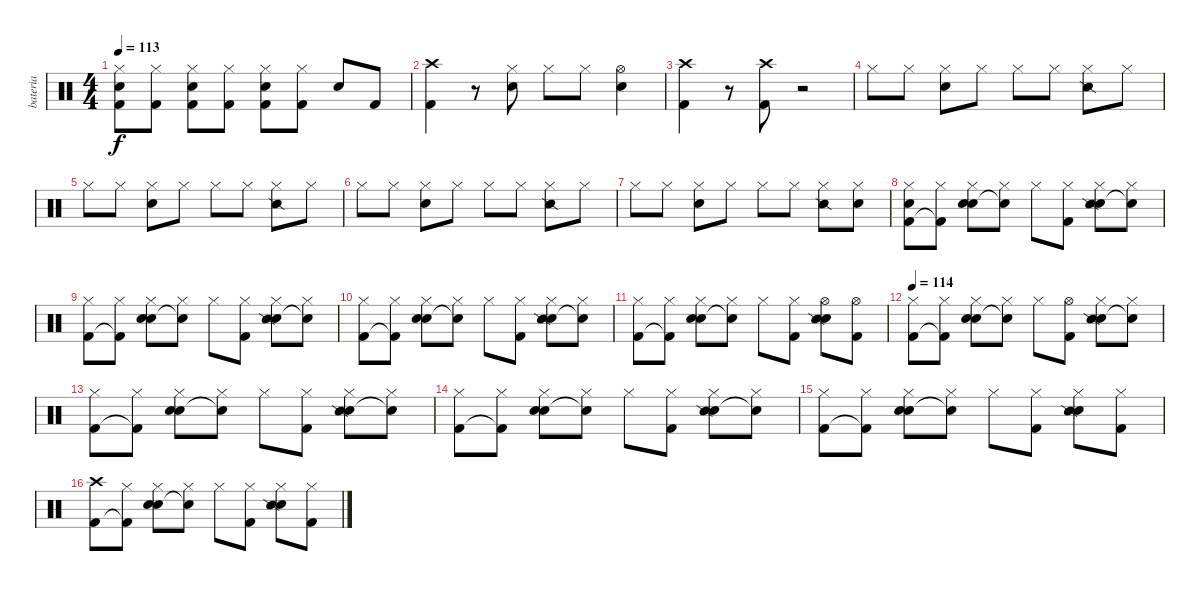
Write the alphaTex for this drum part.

\track ("bateria" "bateria") {instrument percussion}
\staff {score}
\articulation defaults
\ts (4 4)
\tempo 113
\clef neutral
\ks c
("Hi-Hat (closed)" "Snare (hit) 2" "Kick (hit) 2").8{dy f} ("Hi-Hat (closed)" "Kick (hit) 2").8 ("Hi-Hat (closed)" "Snare (hit) 2" "Kick (hit) 2").8 ("Hi-Hat (closed)" "Kick (hit) 2").8 ("Hi-Hat (closed)" "Snare (hit) 2" "Kick (hit) 2").8 ("Hi-Hat (closed)" "Kick (hit) 2").8 "Snare (hit) 2".8 "Kick (hit) 2".8 |
("Crash high (hit)" "Kick (hit) 2").4 r.8 ("Hi-Hat (closed)" "Snare (hit) 2").8 "Hi-Hat (closed)".8 "Hi-Hat (closed)".8 ("Hi-Hat (open)" "Snare (hit) 2").4 |
("Crash high (hit)" "Kick (hit) 2").4 r.8 ("Crash high (hit)" "Kick (hit) 2").8 r.2 |
"Hi-Hat (closed)".8 "Hi-Hat (closed)".8 ("Hi-Hat (closed)" "Hand Clap (hit)").8 "Hi-Hat (closed)".8 "Hi-Hat (closed)".8 "Hi-Hat (closed)".8 ("Hi-Hat (closed)" "Snare (side stick) 2").8 "Hi-Hat (closed)".8 |
"Hi-Hat (closed)".8 "Hi-Hat (closed)".8 ("Hi-Hat (closed)" "Hand Clap (hit)").8 "Hi-Hat (closed)".8 "Hi-Hat (closed)".8 "Hi-Hat (closed)".8 ("Hi-Hat (closed)" "Snare (side stick) 2").8 "Hi-Hat (closed)".8 |
"Hi-Hat (closed)".8 "Hi-Hat (closed)".8 ("Hi-Hat (closed)" "Hand Clap (hit)").8 "Hi-Hat (closed)".8 "Hi-Hat (closed)".8 "Hi-Hat (closed)".8 ("Hi-Hat (closed)" "Snare (side stick) 2").8 "Hi-Hat (closed)".8 |
"Hi-Hat (closed)".8 "Hi-Hat (closed)".8 ("Hi-Hat (closed)" "Hand Clap (hit)").8 "Hi-Hat (closed)".8 "Hi-Hat (closed)".8 "Hi-Hat (closed)".8 ("Hi-Hat (closed)" "Snare (side stick) 2").8 ("Hi-Hat (closed)" "Hand Clap (hit)").8 |
("Hi-Hat (closed)" "Kick (hit) 2" "Snare (hit) 2").8 ("Hi-Hat (closed)" "Kick (hit) 2"{t}).8 ("Hi-Hat (closed)" "Snare (hit) 2" "Hand Clap (hit)").8 ("Hi-Hat (closed)" "Snare (hit) 2"{t}).8 "Hi-Hat (closed)".8 ("Hi-Hat (closed)" "Kick (hit) 2").8 ("Hi-Hat (closed)" "Snare (hit) 2" "Snare (side stick) 2").8 ("Hi-Hat (closed)" "Snare (hit) 2"{t}).8 |
("Hi-Hat (closed)" "Kick (hit) 2").8 ("Hi-Hat (closed)" "Kick (hit) 2"{t}).8 ("Hi-Hat (closed)" "Snare (hit) 2" "Hand Clap (hit)").8 ("Hi-Hat (closed)" "Snare (hit) 2"{t}).8 "Hi-Hat (closed)".8 ("Hi-Hat (closed)" "Kick (hit) 2").8 ("Hi-Hat (closed)" "Snare (hit) 2" "Snare (side stick) 2").8 ("Hi-Hat (closed)" "Snare (hit) 2"{t}).8 |
("Hi-Hat (closed)" "Kick (hit) 2").8 ("Hi-Hat (closed)" "Kick (hit) 2"{t}).8 ("Hi-Hat (closed)" "Snare (hit) 2" "Hand Clap (hit)").8 ("Hi-Hat (closed)" "Snare (hit) 2"{t}).8 "Hi-Hat (closed)".8 ("Hi-Hat (closed)" "Kick (hit) 2").8 ("Hi-Hat (closed)" "Snare (hit) 2" "Snare (side stick) 2").8 ("Hi-Hat (closed)" "Snare (hit) 2"{t}).8 |
("Hi-Hat (closed)" "Kick (hit) 2").8 ("Hi-Hat (closed)" "Kick (hit) 2"{t}).8 ("Hi-Hat (closed)" "Snare (hit) 2" "Hand Clap (hit)").8 ("Hi-Hat (closed)" "Snare (hit) 2"{t}).8 "Hi-Hat (closed)".8 ("Hi-Hat (closed)" "Kick (hit) 2").8 ("Hi-Hat (open)" "Snare (hit) 2" "Snare (side stick) 2").8 ("Hi-Hat (open)" "Kick (hit) 2").8 |
\tempo 114
("Hi-Hat (closed)" "Kick (hit) 2").8 ("Hi-Hat (closed)" "Kick (hit) 2"{t}).8 ("Hi-Hat (closed)" "Snare (hit) 2" "Hand Clap (hit)").8 ("Hi-Hat (closed)" "Snare (hit) 2"{t}).8 "Hi-Hat (closed)".8 ("Hi-Hat (open)" "Kick (hit) 2").8 ("Hi-Hat (closed)" "Snare (hit) 2" "Snare (side stick) 2").8 ("Hi-Hat (closed)" "Snare (hit) 2"{t}).8 |
("Hi-Hat (closed)" "Kick (hit) 2").8 ("Hi-Hat (closed)" "Kick (hit) 2"{t}).8 ("Hi-Hat (closed)" "Snare (hit) 2" "Hand Clap (hit)").8 ("Hi-Hat (closed)" "Snare (hit) 2"{t}).8 "Hi-Hat (closed)".8 ("Hi-Hat (closed)" "Kick (hit) 2").8 ("Hi-Hat (closed)" "Snare (hit) 2" "Snare (side stick) 2").8 ("Hi-Hat (closed)" "Snare (hit) 2"{t}).8 |
("Hi-Hat (closed)" "Kick (hit) 2").8 ("Hi-Hat (closed)" "Kick (hit) 2"{t}).8 ("Hi-Hat (closed)" "Snare (hit) 2" "Hand Clap (hit)").8 ("Hi-Hat (closed)" "Snare (hit) 2"{t}).8 "Hi-Hat (closed)".8 ("Hi-Hat (closed)" "Kick (hit) 2").8 ("Hi-Hat (closed)" "Snare (hit) 2" "Snare (side stick) 2").8 ("Hi-Hat (closed)" "Snare (hit) 2"{t}).8 |
("Hi-Hat (closed)" "Kick (hit) 2").8 ("Hi-Hat (closed)" "Kick (hit) 2"{t}).8 ("Hi-Hat (closed)" "Snare (hit) 2" "Hand Clap (hit)").8 ("Hi-Hat (closed)" "Snare (hit) 2"{t}).8 "Hi-Hat (closed)".8 ("Hi-Hat (closed)" "Kick (hit) 2").8 ("Hi-Hat (closed)" "Snare (hit) 2" "Snare (side stick) 2").8 ("Hi-Hat (closed)" "Kick (hit) 2").8 |
("Crash high (hit)" "Kick (hit) 2").8 ("Hi-Hat (closed)" "Kick (hit) 2"{t}).8 ("Hi-Hat (closed)" "Snare (hit) 2" "Hand Clap (hit)").8 ("Hi-Hat (closed)" "Snare (hit) 2"{t}).8 "Hi-Hat (closed)".8 ("Hi-Hat (closed)" "Kick (hit) 2").8 ("Hi-Hat (closed)" "Snare (hit) 2" "Snare (side stick) 2").8 ("Hi-Hat (closed)" "Kick (hit) 2").8
